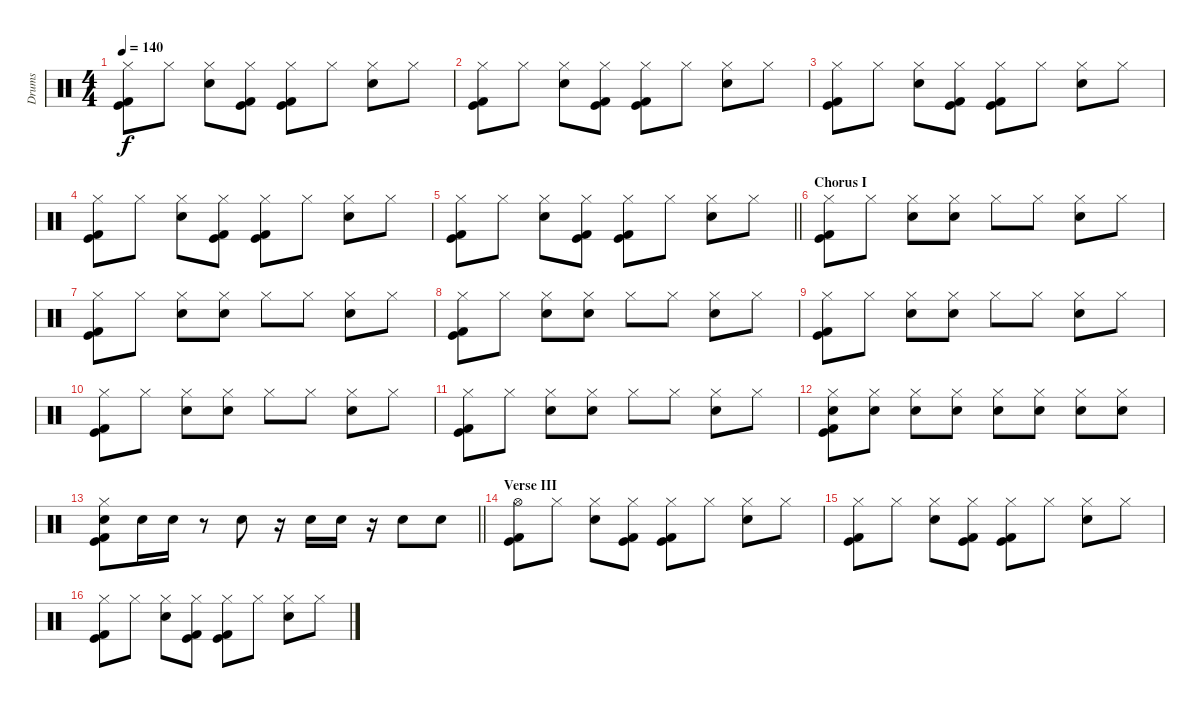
\track ("Drums" "Drums") {instrument percussion}
\staff {score}
\articulation defaults
\ts (4 4)
\tempo 140
\clef neutral
\ks c
("Hi-Hat (closed)" "Kick (hit) 2" "Kick (hit)").8{dy f} "Hi-Hat (closed)".8 ("Hi-Hat (closed)" "Snare (hit) 2").8 ("Hi-Hat (closed)" "Kick (hit) 2" "Kick (hit)").8 ("Hi-Hat (closed)" "Kick (hit) 2" "Kick (hit)").8 "Hi-Hat (closed)".8 ("Hi-Hat (closed)" "Snare (hit) 2").8 "Hi-Hat (closed)".8 |
("Hi-Hat (closed)" "Kick (hit) 2" "Kick (hit)").8 "Hi-Hat (closed)".8 ("Hi-Hat (closed)" "Snare (hit) 2").8 ("Hi-Hat (closed)" "Kick (hit) 2" "Kick (hit)").8 ("Hi-Hat (closed)" "Kick (hit) 2" "Kick (hit)").8 "Hi-Hat (closed)".8 ("Hi-Hat (closed)" "Snare (hit) 2").8 "Hi-Hat (closed)".8 |
("Hi-Hat (closed)" "Kick (hit) 2" "Kick (hit)").8 "Hi-Hat (closed)".8 ("Hi-Hat (closed)" "Snare (hit) 2").8 ("Hi-Hat (closed)" "Kick (hit) 2" "Kick (hit)").8 ("Hi-Hat (closed)" "Kick (hit) 2" "Kick (hit)").8 "Hi-Hat (closed)".8 ("Hi-Hat (closed)" "Snare (hit) 2").8 "Hi-Hat (closed)".8 |
("Hi-Hat (closed)" "Kick (hit) 2" "Kick (hit)").8 "Hi-Hat (closed)".8 ("Hi-Hat (closed)" "Snare (hit) 2").8 ("Hi-Hat (closed)" "Kick (hit) 2" "Kick (hit)").8 ("Hi-Hat (closed)" "Kick (hit) 2" "Kick (hit)").8 "Hi-Hat (closed)".8 ("Hi-Hat (closed)" "Snare (hit) 2").8 "Hi-Hat (closed)".8 |
\barLineRight lightlight
("Hi-Hat (closed)" "Kick (hit) 2" "Kick (hit)").8 "Hi-Hat (closed)".8 ("Hi-Hat (closed)" "Snare (hit) 2").8 ("Hi-Hat (closed)" "Kick (hit) 2" "Kick (hit)").8 ("Hi-Hat (closed)" "Kick (hit) 2" "Kick (hit)").8 "Hi-Hat (closed)".8 ("Hi-Hat (closed)" "Snare (hit) 2").8 "Hi-Hat (closed)".8 |
\section ("" "Chorus I")
("Hi-Hat (closed)" "Kick (hit) 2" "Kick (hit)").8 "Hi-Hat (closed)".8 ("Hi-Hat (closed)" "Snare (hit) 2").8 ("Hi-Hat (closed)" "Snare (hit) 2").8 "Hi-Hat (closed)".8 "Hi-Hat (closed)".8 ("Hi-Hat (closed)" "Snare (hit) 2").8 "Hi-Hat (closed)".8 |
("Hi-Hat (closed)" "Kick (hit) 2" "Kick (hit)").8 "Hi-Hat (closed)".8 ("Hi-Hat (closed)" "Snare (hit) 2").8 ("Hi-Hat (closed)" "Snare (hit) 2").8 "Hi-Hat (closed)".8 "Hi-Hat (closed)".8 ("Hi-Hat (closed)" "Snare (hit) 2").8 "Hi-Hat (closed)".8 |
("Hi-Hat (closed)" "Kick (hit) 2" "Kick (hit)").8 "Hi-Hat (closed)".8 ("Hi-Hat (closed)" "Snare (hit) 2").8 ("Hi-Hat (closed)" "Snare (hit) 2").8 "Hi-Hat (closed)".8 "Hi-Hat (closed)".8 ("Hi-Hat (closed)" "Snare (hit) 2").8 "Hi-Hat (closed)".8 |
("Hi-Hat (closed)" "Kick (hit) 2" "Kick (hit)").8 "Hi-Hat (closed)".8 ("Hi-Hat (closed)" "Snare (hit) 2").8 ("Hi-Hat (closed)" "Snare (hit) 2").8 "Hi-Hat (closed)".8 "Hi-Hat (closed)".8 ("Hi-Hat (closed)" "Snare (hit) 2").8 "Hi-Hat (closed)".8 |
("Hi-Hat (closed)" "Kick (hit) 2" "Kick (hit)").8 "Hi-Hat (closed)".8 ("Hi-Hat (closed)" "Snare (hit) 2").8 ("Hi-Hat (closed)" "Snare (hit) 2").8 "Hi-Hat (closed)".8 "Hi-Hat (closed)".8 ("Hi-Hat (closed)" "Snare (hit) 2").8 "Hi-Hat (closed)".8 |
("Hi-Hat (closed)" "Kick (hit) 2" "Kick (hit)").8 "Hi-Hat (closed)".8 ("Hi-Hat (closed)" "Snare (hit) 2").8 ("Hi-Hat (closed)" "Snare (hit) 2").8 "Hi-Hat (closed)".8 "Hi-Hat (closed)".8 ("Hi-Hat (closed)" "Snare (hit) 2").8 "Hi-Hat (closed)".8 |
("Hi-Hat (closed)" "Snare (hit) 2" "Kick (hit) 2" "Kick (hit)").8 ("Hi-Hat (closed)" "Snare (hit) 2").8 ("Hi-Hat (closed)" "Snare (hit) 2").8 ("Hi-Hat (closed)" "Snare (hit) 2").8 ("Hi-Hat (closed)" "Snare (hit) 2").8 ("Hi-Hat (closed)" "Snare (hit) 2").8 ("Hi-Hat (closed)" "Snare (hit) 2").8 ("Hi-Hat (closed)" "Snare (hit) 2").8 |
\barLineRight lightlight
("Hi-Hat (closed)" "Snare (hit) 2" "Kick (hit) 2" "Kick (hit)").8 "Snare (hit) 2".16 "Snare (hit) 2".16 r.8 "Snare (hit) 2".8 r.16 "Snare (hit) 2".16 "Snare (hit) 2".16 r.16 "Snare (hit) 2".8 "Snare (hit) 2".8 |
\section ("" "Verse III")
("Hi-Hat (open)" "Kick (hit) 2" "Kick (hit)").8 "Hi-Hat (closed)".8 ("Hi-Hat (closed)" "Snare (hit) 2").8 ("Hi-Hat (closed)" "Kick (hit) 2" "Kick (hit)").8 ("Hi-Hat (closed)" "Kick (hit) 2" "Kick (hit)").8 "Hi-Hat (closed)".8 ("Hi-Hat (closed)" "Snare (hit) 2").8 "Hi-Hat (closed)".8 |
("Hi-Hat (closed)" "Kick (hit) 2" "Kick (hit)").8 "Hi-Hat (closed)".8 ("Hi-Hat (closed)" "Snare (hit) 2").8 ("Hi-Hat (closed)" "Kick (hit) 2" "Kick (hit)").8 ("Hi-Hat (closed)" "Kick (hit) 2" "Kick (hit)").8 "Hi-Hat (closed)".8 ("Hi-Hat (closed)" "Snare (hit) 2").8 "Hi-Hat (closed)".8 |
("Hi-Hat (closed)" "Kick (hit) 2" "Kick (hit)").8 "Hi-Hat (closed)".8 ("Hi-Hat (closed)" "Snare (hit) 2").8 ("Hi-Hat (closed)" "Kick (hit) 2" "Kick (hit)").8 ("Hi-Hat (closed)" "Kick (hit) 2" "Kick (hit)").8 "Hi-Hat (closed)".8 ("Hi-Hat (closed)" "Snare (hit) 2").8 "Hi-Hat (closed)".8
